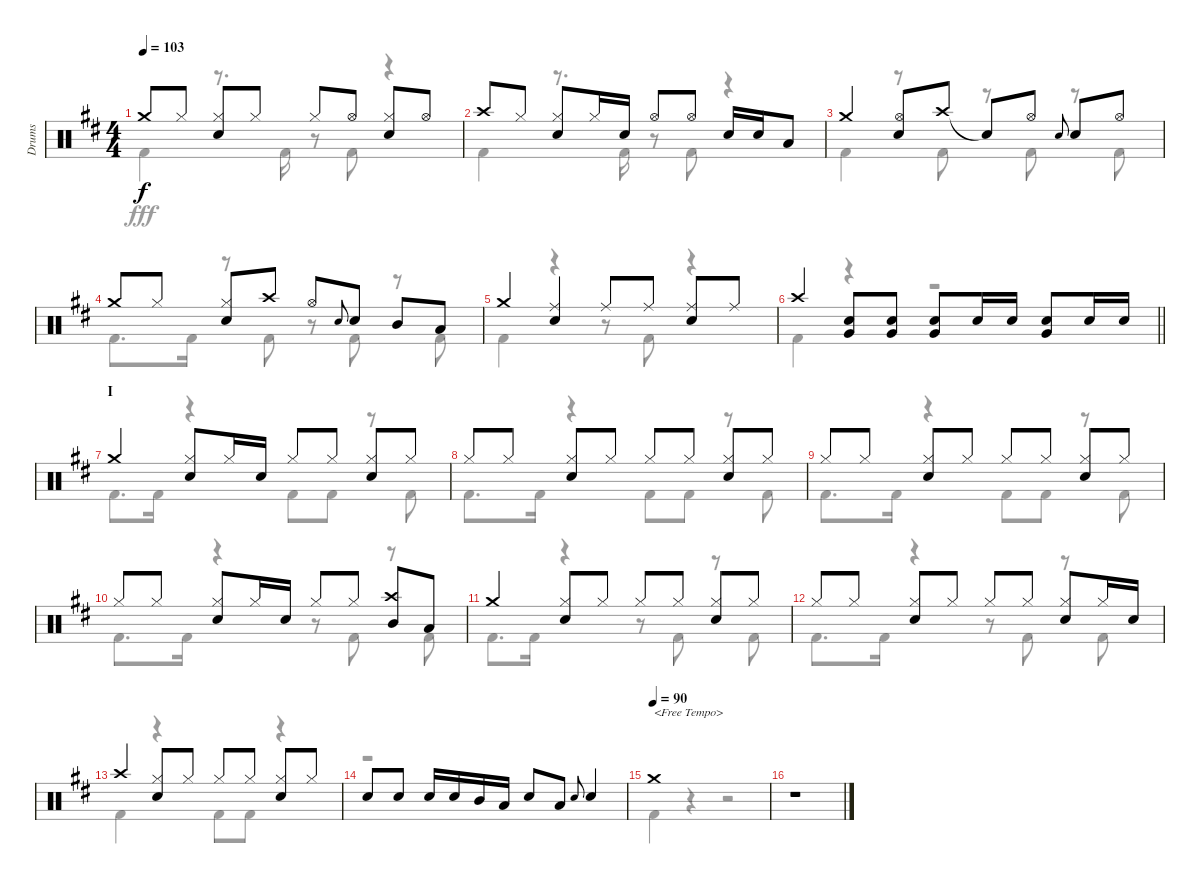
\track ("Drums" "Drums") {instrument percussion}
\staff {score}
\articulation defaults
\voice
\ts (4 4)
\tempo 103
\clef neutral
\ks d "Crash medium (hit)".8{dy f} "Hi-Hat (closed)".8
("Hi-Hat (closed)" "Snare (hit) 2").8 "Hi-Hat (closed)".8 "Hi-Hat (closed)".8 "Hi-Hat (open)".8 ("Hi-Hat (closed)" "Snare (hit) 2").8 "Hi-Hat (open)".8 |
"Crash high (hit)".8 "Hi-Hat (closed)".8 ("Hi-Hat (closed)" "Snare (hit) 2").8 "Hi-Hat (closed)".16 "Snare (hit) 2".16 "Hi-Hat (open)".8 "Hi-Hat (open)".8 "Snare (hit) 2".16 "Snare (hit) 2".16 "Low Tom (hit)".8 |
"Crash medium (hit)".4 ("Hi-Hat (open)" "Snare (hit) 2").8 "Crash high (hit)".8 "Snare (hit)"{t}.8 "Hi-Hat (open)".8 "Snare (hit) 2".8{gr onbeat} "Snare (hit) 2".8 "Hi-Hat (open)".8 |
"Crash medium (hit)".8 "Hi-Hat (closed)".8 ("Hi-Hat (closed)" "Snare (hit) 2").8 "Crash high (hit)".8 "Hi-Hat (open)".8 "Snare (hit) 2".8{gr onbeat} "Snare (hit) 2".8 "Mid Tom (hit)".8 "Low Tom (hit)".8 |
"Crash medium (hit)".4 ("Ride (middle)" "Snare (hit) 2").4 "Ride (middle)".8 "Ride (middle)".8 ("Ride (middle)" "Snare (hit) 2").8 "Ride (middle)".8 |
\barLineRight lightlight "Crash high (hit)".4
("Snare (hit) 2" "Very Low Tom (hit)").8 ("Snare (hit) 2" "Very Low Tom (hit)").8 ("Snare (hit) 2" "Very Low Tom (hit)").8 "Snare (hit) 2".16 "Snare (hit) 2".16 ("Snare (hit) 2" "Very Low Tom (hit)").8 "Snare (hit) 2".16 "Snare (hit) 2".16 |
\section ("" "I")
"Crash medium (hit)".4 ("Hi-Hat (closed)" "Snare (hit) 2").8 "Hi-Hat (closed)".16 "Snare (hit) 2".16 "Hi-Hat (closed)".8 "Hi-Hat (closed)".8 ("Hi-Hat (closed)" "Snare (hit) 2").8 "Hi-Hat (closed)".8 |
"Hi-Hat (closed)".8 "Hi-Hat (closed)".8 ("Hi-Hat (closed)" "Snare (hit) 2").8 "Hi-Hat (closed)".8 "Hi-Hat (closed)".8 "Hi-Hat (closed)".8 ("Hi-Hat (closed)" "Snare (hit) 2").8 "Hi-Hat (closed)".8 |
"Hi-Hat (closed)".8 "Hi-Hat (closed)".8 ("Hi-Hat (closed)" "Snare (hit) 2").8 "Hi-Hat (closed)".8 "Hi-Hat (closed)".8 "Hi-Hat (closed)".8 ("Hi-Hat (closed)" "Snare (hit) 2").8 "Hi-Hat (closed)".8 |
"Hi-Hat (closed)".8 "Hi-Hat (closed)".8 ("Hi-Hat (closed)" "Snare (hit) 2").8 "Hi-Hat (closed)".16 "Snare (hit) 2".16 "Hi-Hat (closed)".8 "Hi-Hat (closed)".8 ("Crash high (hit)" "Mid Tom (hit)").8 "Low Tom (hit)".8 |
"Crash medium (hit)".4 ("Hi-Hat (closed)" "Snare (hit) 2").8 "Hi-Hat (closed)".8 "Hi-Hat (closed)".8 "Hi-Hat (closed)".8 ("Hi-Hat (closed)" "Snare (hit) 2").8 "Hi-Hat (closed)".8 |
"Hi-Hat (closed)".8 "Hi-Hat (closed)".8 ("Hi-Hat (closed)" "Snare (hit) 2").8 "Hi-Hat (closed)".8 "Hi-Hat (closed)".8 "Hi-Hat (closed)".8 ("Hi-Hat (closed)" "Snare (hit) 2").8 "Hi-Hat (closed)".16 "Snare (hit) 2".16 |
"Crash high (hit)".4 ("Hi-Hat (closed)" "Snare (hit) 2").8 "Hi-Hat (closed)".8 "Hi-Hat (closed)".8 "Hi-Hat (closed)".8 ("Hi-Hat (closed)" "Snare (hit) 2").8 "Hi-Hat (closed)".8 |
"Snare (hit) 2".8 "Snare (hit) 2".8 "Snare (hit) 2".16 "Snare (hit) 2".16 "Mid Tom (hit)".16 "Low Tom (hit)".16 "Snare (hit) 2".8 "Low Tom (hit)".8 "Snare (hit) 2".8{gr onbeat} "Snare (hit) 2".4 |
\tempo (90)
"Crash medium (hit)".1{txt "<Free Tempo>"} |
r.1
\voice
\clef neutral
\ottava regular
\simile none
\ks d "Kick (hit) 2".4{dy fff}
r.8{d} "Kick (hit) 2".16 r.8 "Kick (hit) 2".8 r.4 |
"Kick (hit) 2".4 r.8{d} "Kick (hit) 2".16 r.8 "Kick (hit) 2".8 r.4 |
"Kick (hit) 2".4 r.8 "Kick (hit) 2".8 r.8 "Kick (hit) 2".8 r.8 "Kick (hit) 2".8 |
"Kick (hit) 2".8{d} "Kick (hit) 2".16 r.8 "Kick (hit) 2".8 r.8 "Kick (hit) 2".8 r.8 "Kick (hit) 2".8 |
"Kick (hit) 2".4 r.4 r.8 "Kick (hit) 2".8 r.4 |
\barLineRight lightlight "Kick (hit) 2".4
r.4 r.2 |
"Kick (hit) 2".8{d} "Kick (hit) 2".16 r.4 "Kick (hit) 2".8 "Kick (hit) 2".8 r.8 "Kick (hit) 2".8 |
"Kick (hit) 2".8{d} "Kick (hit) 2".16 r.4 "Kick (hit) 2".8 "Kick (hit) 2".8 r.8 "Kick (hit) 2".8 |
"Kick (hit) 2".8{d} "Kick (hit) 2".16 r.4 "Kick (hit) 2".8 "Kick (hit) 2".8 r.8 "Kick (hit) 2".8 |
"Kick (hit) 2".8{d} "Kick (hit) 2".16 r.4 r.8 "Kick (hit) 2".8 r.8 "Kick (hit) 2".8 |
"Kick (hit) 2".8{d} "Kick (hit) 2".16 r.4 r.8 "Kick (hit) 2".8 r.8 "Kick (hit) 2".8 |
"Kick (hit) 2".8{d} "Kick (hit) 2".16 r.4 r.8 "Kick (hit) 2".8 r.8 "Kick (hit) 2".8 |
"Kick (hit) 2".4 r.4 "Kick (hit) 2".8 "Kick (hit) 2".8 r.4 |
r.1 |
"Kick (hit) 2".4 r.4 r.2 |
r.1
